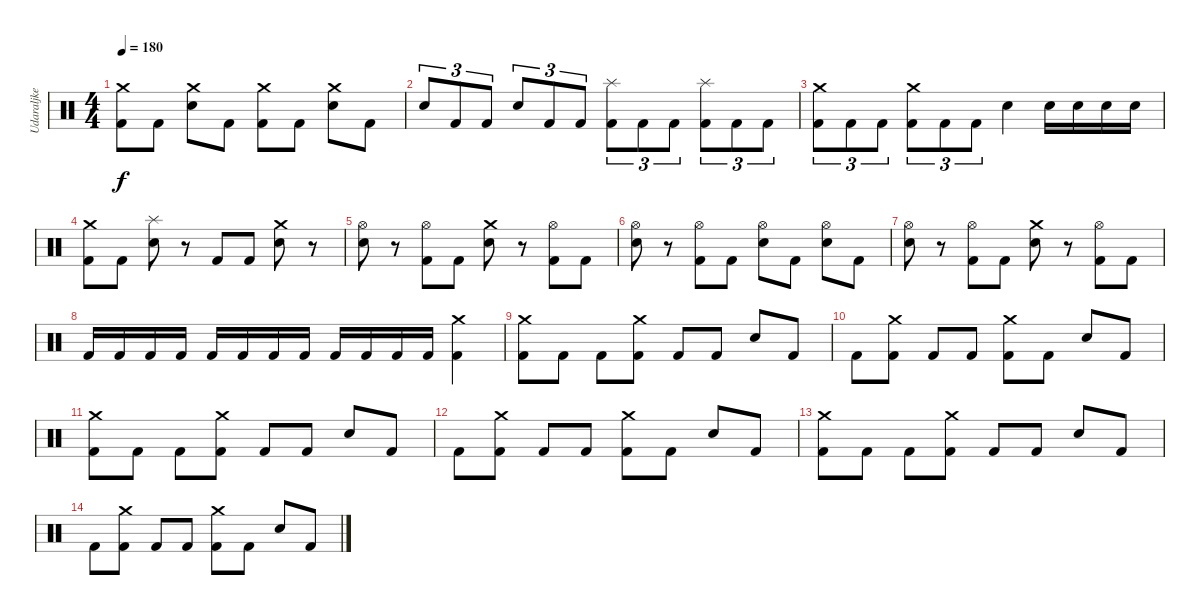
\track ("Udaraljke" "Udaraljke") {instrument percussion}
\staff {score}
\articulation defaults
\ts (4 4)
\tempo 180
\clef neutral
\ks c
("Kick (hit) 2" "Crash medium (hit)").8{dy f} "Kick (hit) 2".8 ("Snare (hit) 2" "Crash medium (hit)").8 "Kick (hit) 2".8 ("Kick (hit) 2" "Crash medium (hit)").8 "Kick (hit) 2".8 ("Snare (hit) 2" "Crash medium (hit)").8 "Kick (hit) 2".8 |
"Snare (hit) 2".8{tu (3 2)} "Kick (hit) 2".8{tu (3 2)} "Kick (hit) 2".8{tu (3 2)} "Snare (hit) 2".8{tu (3 2)} "Kick (hit) 2".8{tu (3 2)} "Kick (hit) 2".8{tu (3 2)} ("Kick (hit) 2" "Splash (hit)").8{tu (3 2)} "Kick (hit) 2".8{tu (3 2)} "Kick (hit) 2".8{tu (3 2)} ("Kick (hit) 2" "Splash (hit)").8{tu (3 2)} "Kick (hit) 2".8{tu (3 2)} "Kick (hit) 2".8{tu (3 2)} |
("Kick (hit) 2" "Crash medium (hit)").8{tu (3 2)} "Kick (hit) 2".8{tu (3 2)} "Kick (hit) 2".8{tu (3 2)} ("Kick (hit) 2" "Crash medium (hit)").8{tu (3 2)} "Kick (hit) 2".8{tu (3 2)} "Kick (hit) 2".8{tu (3 2)} "Snare (hit) 2".4 "Snare (hit) 2".16 "Snare (hit) 2".16 "Snare (hit) 2".16 "Snare (hit) 2".16 |
("Kick (hit) 2" "Crash medium (hit)").8 "Kick (hit) 2".8 ("Snare (hit) 2" "Splash (hit)").8 r.8 "Kick (hit) 2".8 "Kick (hit) 2".8 ("Snare (hit) 2" "Crash medium (hit)").8 r.8 |
("Snare (hit) 2" "Hi-Hat (open)").8 r.8 ("Kick (hit) 2" "Hi-Hat (open)").8 "Kick (hit) 2".8 ("Snare (hit) 2" "Crash medium (hit)").8 r.8 ("Kick (hit) 2" "Hi-Hat (open)").8 "Kick (hit) 2".8 |
("Snare (hit) 2" "Hi-Hat (open)").8 r.8 ("Kick (hit) 2" "Hi-Hat (open)").8 "Kick (hit) 2".8 ("Snare (hit) 2" "Hi-Hat (open)").8 "Kick (hit) 2".8 ("Snare (hit) 2" "Hi-Hat (open)").8 "Kick (hit) 2".8 |
("Snare (hit) 2" "Hi-Hat (open)").8 r.8 ("Kick (hit) 2" "Hi-Hat (open)").8 "Kick (hit) 2".8 ("Snare (hit) 2" "Crash medium (hit)").8 r.8 ("Kick (hit) 2" "Hi-Hat (open)").8 "Kick (hit) 2".8 |
"Kick (hit) 2".16 "Kick (hit) 2".16 "Kick (hit) 2".16 "Kick (hit) 2".16 "Kick (hit) 2".16 "Kick (hit) 2".16 "Kick (hit) 2".16 "Kick (hit) 2".16 "Kick (hit) 2".16 "Kick (hit) 2".16 "Kick (hit) 2".16 "Kick (hit) 2".16 ("Kick (hit) 2" "Crash medium (hit)").4 |
("Kick (hit) 2" "Crash medium (hit)").8 "Kick (hit) 2".8 "Kick (hit) 2".8 ("Kick (hit) 2" "Crash medium (hit)").8 "Kick (hit) 2".8 "Kick (hit) 2".8 "Snare (hit) 2".8 "Kick (hit) 2".8 |
"Kick (hit) 2".8 ("Kick (hit) 2" "Crash medium (hit)").8 "Kick (hit) 2".8 "Kick (hit) 2".8 ("Kick (hit) 2" "Crash medium (hit)").8 "Kick (hit) 2".8 "Snare (hit) 2".8 "Kick (hit) 2".8 |
("Kick (hit) 2" "Crash medium (hit)").8 "Kick (hit) 2".8 "Kick (hit) 2".8 ("Kick (hit) 2" "Crash medium (hit)").8 "Kick (hit) 2".8 "Kick (hit) 2".8 "Snare (hit) 2".8 "Kick (hit) 2".8 |
"Kick (hit) 2".8 ("Kick (hit) 2" "Crash medium (hit)").8 "Kick (hit) 2".8 "Kick (hit) 2".8 ("Kick (hit) 2" "Crash medium (hit)").8 "Kick (hit) 2".8 "Snare (hit) 2".8 "Kick (hit) 2".8 |
("Kick (hit) 2" "Crash medium (hit)").8 "Kick (hit) 2".8 "Kick (hit) 2".8 ("Kick (hit) 2" "Crash medium (hit)").8 "Kick (hit) 2".8 "Kick (hit) 2".8 "Snare (hit) 2".8 "Kick (hit) 2".8 |
"Kick (hit) 2".8 ("Kick (hit) 2" "Crash medium (hit)").8 "Kick (hit) 2".8 "Kick (hit) 2".8 ("Kick (hit) 2" "Crash medium (hit)").8 "Kick (hit) 2".8 "Snare (hit) 2".8 "Kick (hit) 2".8
